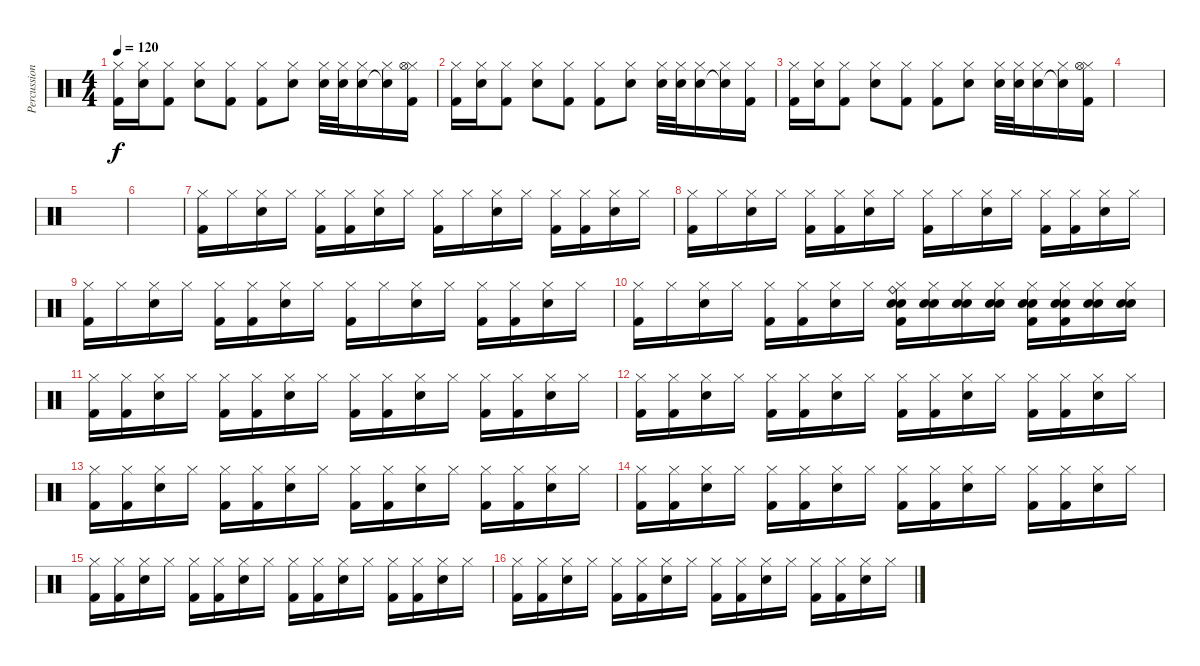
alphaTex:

\track ("Percussions" "Percussion") {instrument percussion}
\staff {score}
\articulation defaults
\ts (4 4)
\tempo 120
\clef neutral
\ks c
("Hi-Hat (closed)" "Kick (hit) 2").16{dy f} ("Hi-Hat (closed)" "Snare (hit) 2").16 ("Hi-Hat (closed)" "Kick (hit) 2").8 ("Hi-Hat (closed)" "Electric Snare (hit)").8 ("Hi-Hat (closed)" "Kick (hit) 2").8 ("Hi-Hat (closed)" "Kick (hit) 2").8 ("Hi-Hat (closed)" "Snare (hit) 2").8 ("Hi-Hat (closed)" "Snare (hit) 2").32 ("Hi-Hat (closed)" "Electric Snare (hit)").32 ("Hi-Hat (closed)" "Snare (hit) 2").16 ("Hi-Hat (closed)" "Snare (hit)"{t}).16 ("Hi-Hat (closed)" "Hi-Hat (open)" "Kick (hit) 2").16 |
("Hi-Hat (closed)" "Kick (hit) 2").16 ("Hi-Hat (closed)" "Snare (hit) 2").16 ("Hi-Hat (closed)" "Kick (hit) 2").8 ("Hi-Hat (closed)" "Electric Snare (hit)").8 ("Hi-Hat (closed)" "Kick (hit) 2").8 ("Hi-Hat (closed)" "Kick (hit) 2").8 ("Hi-Hat (closed)" "Snare (hit) 2").8 ("Hi-Hat (closed)" "Snare (hit) 2").32 ("Hi-Hat (closed)" "Electric Snare (hit)").32 ("Hi-Hat (closed)" "Snare (hit) 2").16 ("Hi-Hat (closed)" "Snare (hit)"{t}).16 ("Hi-Hat (closed)" "Kick (hit) 2").16 |
("Hi-Hat (closed)" "Kick (hit) 2").16 ("Hi-Hat (closed)" "Snare (hit) 2").16 ("Hi-Hat (closed)" "Kick (hit) 2").8 ("Hi-Hat (closed)" "Electric Snare (hit)").8 ("Hi-Hat (closed)" "Kick (hit) 2").8 ("Hi-Hat (closed)" "Kick (hit) 2").8 ("Hi-Hat (closed)" "Snare (hit) 2").8 ("Hi-Hat (closed)" "Snare (hit) 2").32 ("Hi-Hat (closed)" "Electric Snare (hit)").32 ("Hi-Hat (closed)" "Snare (hit) 2").16 ("Hi-Hat (closed)" "Snare (hit)"{t}).16 ("Hi-Hat (closed)" "Hi-Hat (open)" "Kick (hit) 2").16 |
|
|
|
("Hi-Hat (closed)" "Kick (hit) 2").16 "Hi-Hat (closed)".16 ("Hi-Hat (closed)" "Electric Snare (hit)").16 "Hi-Hat (closed)".16 ("Hi-Hat (closed)" "Kick (hit) 2").16 ("Hi-Hat (closed)" "Kick (hit) 2").16 ("Hi-Hat (closed)" "Electric Snare (hit)").16 "Hi-Hat (closed)".16 ("Hi-Hat (closed)" "Kick (hit) 2").16 "Hi-Hat (closed)".16 ("Hi-Hat (closed)" "Electric Snare (hit)").16 "Hi-Hat (closed)".16 ("Hi-Hat (closed)" "Kick (hit) 2").16 ("Hi-Hat (closed)" "Kick (hit) 2").16 ("Hi-Hat (closed)" "Electric Snare (hit)").16 "Hi-Hat (closed)".16 |
("Hi-Hat (closed)" "Kick (hit) 2").16 "Hi-Hat (closed)".16 ("Hi-Hat (closed)" "Electric Snare (hit)").16 "Hi-Hat (closed)".16 ("Hi-Hat (closed)" "Kick (hit) 2").16 ("Hi-Hat (closed)" "Kick (hit) 2").16 ("Hi-Hat (closed)" "Electric Snare (hit)").16 "Hi-Hat (closed)".16 ("Hi-Hat (closed)" "Kick (hit) 2").16 "Hi-Hat (closed)".16 ("Hi-Hat (closed)" "Electric Snare (hit)").16 "Hi-Hat (closed)".16 ("Hi-Hat (closed)" "Kick (hit) 2").16 ("Hi-Hat (closed)" "Kick (hit) 2").16 ("Hi-Hat (closed)" "Electric Snare (hit)").16 "Hi-Hat (closed)".16 |
("Hi-Hat (closed)" "Kick (hit) 2").16 "Hi-Hat (closed)".16 ("Hi-Hat (closed)" "Electric Snare (hit)").16 "Hi-Hat (closed)".16 ("Hi-Hat (closed)" "Kick (hit) 2").16 ("Hi-Hat (closed)" "Kick (hit) 2").16 ("Hi-Hat (closed)" "Electric Snare (hit)").16 "Hi-Hat (closed)".16 ("Hi-Hat (closed)" "Kick (hit) 2").16 "Hi-Hat (closed)".16 ("Hi-Hat (closed)" "Electric Snare (hit)").16 "Hi-Hat (closed)".16 ("Hi-Hat (closed)" "Kick (hit) 2").16 ("Hi-Hat (closed)" "Kick (hit) 2").16 ("Hi-Hat (closed)" "Electric Snare (hit)").16 "Hi-Hat (closed)".16 |
("Hi-Hat (closed)" "Kick (hit) 2").16 "Hi-Hat (closed)".16 ("Hi-Hat (closed)" "Electric Snare (hit)").16 "Hi-Hat (closed)".16 ("Hi-Hat (closed)" "Kick (hit) 2").16 ("Hi-Hat (closed)" "Kick (hit) 2").16 ("Hi-Hat (closed)" "Electric Snare (hit)").16 "Hi-Hat (closed)".16 ("Hi-Hat (closed)" "Ride (bell)" "Snare (hit) 2" "Electric Snare (hit)" "Kick (hit) 2").16 ("Hi-Hat (closed)" "Snare (hit) 2" "Electric Snare (hit)").16 ("Hi-Hat (closed)" "Snare (hit) 2" "Electric Snare (hit)").16 ("Hi-Hat (closed)" "Snare (hit) 2" "Electric Snare (hit)").16 ("Hi-Hat (closed)" "Snare (hit) 2" "Electric Snare (hit)" "Kick (hit) 2").16 ("Hi-Hat (closed)" "Snare (hit) 2" "Electric Snare (hit)" "Kick (hit) 2").16 ("Hi-Hat (closed)" "Snare (hit) 2" "Electric Snare (hit)").16 ("Hi-Hat (closed)" "Snare (hit) 2" "Electric Snare (hit)").16 |
("Hi-Hat (closed)" "Kick (hit) 2").16 ("Hi-Hat (closed)" "Kick (hit) 2").16 ("Hi-Hat (closed)" "Electric Snare (hit)").16 "Hi-Hat (closed)".16 ("Hi-Hat (closed)" "Kick (hit) 2").16 ("Hi-Hat (closed)" "Kick (hit) 2").16 ("Hi-Hat (closed)" "Electric Snare (hit)").16 "Hi-Hat (closed)".16 ("Hi-Hat (closed)" "Kick (hit) 2").16 ("Hi-Hat (closed)" "Kick (hit) 2").16 ("Hi-Hat (closed)" "Electric Snare (hit)").16 "Hi-Hat (closed)".16 ("Hi-Hat (closed)" "Kick (hit) 2").16 ("Hi-Hat (closed)" "Kick (hit) 2").16 ("Hi-Hat (closed)" "Electric Snare (hit)").16 "Hi-Hat (closed)".16 |
("Hi-Hat (closed)" "Kick (hit) 2").16 ("Hi-Hat (closed)" "Kick (hit) 2").16 ("Hi-Hat (closed)" "Electric Snare (hit)").16 "Hi-Hat (closed)".16 ("Hi-Hat (closed)" "Kick (hit) 2").16 ("Hi-Hat (closed)" "Kick (hit) 2").16 ("Hi-Hat (closed)" "Electric Snare (hit)").16 "Hi-Hat (closed)".16 ("Hi-Hat (closed)" "Kick (hit) 2").16 ("Hi-Hat (closed)" "Kick (hit) 2").16 ("Hi-Hat (closed)" "Electric Snare (hit)").16 "Hi-Hat (closed)".16 ("Hi-Hat (closed)" "Kick (hit) 2").16 ("Hi-Hat (closed)" "Kick (hit) 2").16 ("Hi-Hat (closed)" "Electric Snare (hit)").16 "Hi-Hat (closed)".16 |
("Hi-Hat (closed)" "Kick (hit) 2").16 ("Hi-Hat (closed)" "Kick (hit) 2").16 ("Hi-Hat (closed)" "Electric Snare (hit)").16 "Hi-Hat (closed)".16 ("Hi-Hat (closed)" "Kick (hit) 2").16 ("Hi-Hat (closed)" "Kick (hit) 2").16 ("Hi-Hat (closed)" "Electric Snare (hit)").16 "Hi-Hat (closed)".16 ("Hi-Hat (closed)" "Kick (hit) 2").16 ("Hi-Hat (closed)" "Kick (hit) 2").16 ("Hi-Hat (closed)" "Electric Snare (hit)").16 "Hi-Hat (closed)".16 ("Hi-Hat (closed)" "Kick (hit) 2").16 ("Hi-Hat (closed)" "Kick (hit) 2").16 ("Hi-Hat (closed)" "Electric Snare (hit)").16 "Hi-Hat (closed)".16 |
("Hi-Hat (closed)" "Kick (hit) 2").16 ("Hi-Hat (closed)" "Kick (hit) 2").16 ("Hi-Hat (closed)" "Electric Snare (hit)").16 "Hi-Hat (closed)".16 ("Hi-Hat (closed)" "Kick (hit) 2").16 ("Hi-Hat (closed)" "Kick (hit) 2").16 ("Hi-Hat (closed)" "Electric Snare (hit)").16 "Hi-Hat (closed)".16 ("Hi-Hat (closed)" "Kick (hit) 2").16 ("Hi-Hat (closed)" "Kick (hit) 2").16 ("Hi-Hat (closed)" "Electric Snare (hit)").16 "Hi-Hat (closed)".16 ("Hi-Hat (closed)" "Kick (hit) 2").16 ("Hi-Hat (closed)" "Kick (hit) 2").16 ("Hi-Hat (closed)" "Electric Snare (hit)").16 "Hi-Hat (closed)".16 |
("Hi-Hat (closed)" "Kick (hit) 2").16 ("Hi-Hat (closed)" "Kick (hit) 2").16 ("Hi-Hat (closed)" "Electric Snare (hit)").16 "Hi-Hat (closed)".16 ("Hi-Hat (closed)" "Kick (hit) 2").16 ("Hi-Hat (closed)" "Kick (hit) 2").16 ("Hi-Hat (closed)" "Electric Snare (hit)").16 "Hi-Hat (closed)".16 ("Hi-Hat (closed)" "Kick (hit) 2").16 ("Hi-Hat (closed)" "Kick (hit) 2").16 ("Hi-Hat (closed)" "Electric Snare (hit)").16 "Hi-Hat (closed)".16 ("Hi-Hat (closed)" "Kick (hit) 2").16 ("Hi-Hat (closed)" "Kick (hit) 2").16 ("Hi-Hat (closed)" "Electric Snare (hit)").16 "Hi-Hat (closed)".16 |
("Hi-Hat (closed)" "Kick (hit) 2").16 ("Hi-Hat (closed)" "Kick (hit) 2").16 ("Hi-Hat (closed)" "Electric Snare (hit)").16 "Hi-Hat (closed)".16 ("Hi-Hat (closed)" "Kick (hit) 2").16 ("Hi-Hat (closed)" "Kick (hit) 2").16 ("Hi-Hat (closed)" "Electric Snare (hit)").16 "Hi-Hat (closed)".16 ("Hi-Hat (closed)" "Kick (hit) 2").16 ("Hi-Hat (closed)" "Kick (hit) 2").16 ("Hi-Hat (closed)" "Electric Snare (hit)").16 "Hi-Hat (closed)".16 ("Hi-Hat (closed)" "Kick (hit) 2").16 ("Hi-Hat (closed)" "Kick (hit) 2").16 ("Hi-Hat (closed)" "Electric Snare (hit)").16 "Hi-Hat (closed)".16
